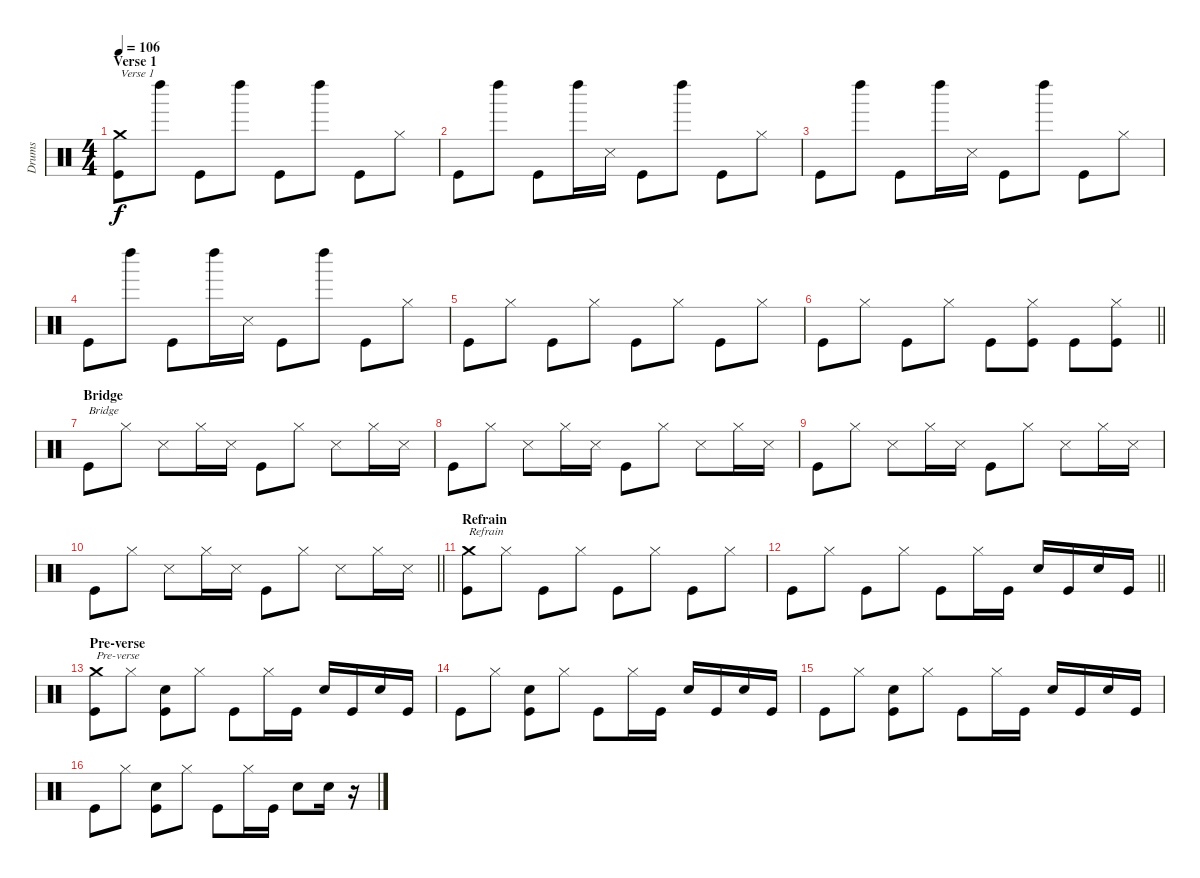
\track ("Drums" "Drums") {instrument percussion}
\staff {score}
\articulation defaults
\ts (4 4)
\section ("" "Verse 1")
\tempo 106
\clef neutral
\ks c
("Kick (hit)" "Crash medium (hit)").8{txt "Verse 1" dy f} "Left Maraca (hit)".8 "Kick (hit)".8 "Left Maraca (hit)".8 "Kick (hit)".8 "Left Maraca (hit)".8 "Kick (hit)".8 "Hi-Hat (closed)".8 |
"Kick (hit)".8 "Left Maraca (hit)".8 "Kick (hit)".8 "Left Maraca (hit)".16 "Snare (side stick) 3".16 "Kick (hit)".8 "Left Maraca (hit)".8 "Kick (hit)".8 "Hi-Hat (closed)".8 |
"Kick (hit)".8 "Left Maraca (hit)".8 "Kick (hit)".8 "Left Maraca (hit)".16 "Snare (side stick) 3".16 "Kick (hit)".8 "Left Maraca (hit)".8 "Kick (hit)".8 "Hi-Hat (closed)".8 |
"Kick (hit)".8 "Left Maraca (hit)".8 "Kick (hit)".8 "Left Maraca (hit)".16 "Snare (side stick) 3".16 "Kick (hit)".8 "Left Maraca (hit)".8 "Kick (hit)".8 "Hi-Hat (closed)".8 |
"Kick (hit)".8 "Hi-Hat (closed)".8 "Kick (hit)".8 "Hi-Hat (closed)".8 "Kick (hit)".8 "Hi-Hat (closed)".8 "Kick (hit)".8 "Hi-Hat (closed)".8 |
\barLineRight lightlight "Kick (hit)".8 "Hi-Hat (closed)".8 "Kick (hit)".8 "Hi-Hat (closed)".8 "Kick (hit)".8
("Kick (hit)" "Hi-Hat (closed)").8 "Kick (hit)".8 ("Kick (hit)" "Hi-Hat (closed)").8 |
\section ("" "Bridge")
"Kick (hit)".8{txt "Bridge"} "Hi-Hat (closed)".8 "Snare (side stick) 3".8 "Hi-Hat (closed)".16 "Snare (side stick) 3".16 "Kick (hit)".8 "Hi-Hat (closed)".8 "Snare (side stick) 3".8 "Hi-Hat (closed)".16 "Snare (side stick) 3".16 |
"Kick (hit)".8 "Hi-Hat (closed)".8 "Snare (side stick) 3".8 "Hi-Hat (closed)".16 "Snare (side stick) 3".16 "Kick (hit)".8 "Hi-Hat (closed)".8 "Snare (side stick) 3".8 "Hi-Hat (closed)".16 "Snare (side stick) 3".16 |
"Kick (hit)".8 "Hi-Hat (closed)".8 "Snare (side stick) 3".8 "Hi-Hat (closed)".16 "Snare (side stick) 3".16 "Kick (hit)".8 "Hi-Hat (closed)".8 "Snare (side stick) 3".8 "Hi-Hat (closed)".16 "Snare (side stick) 3".16 |
\barLineRight lightlight "Kick (hit)".8 "Hi-Hat (closed)".8 "Snare (side stick) 3".8 "Hi-Hat (closed)".16 "Snare (side stick) 3".16 "Kick (hit)".8 "Hi-Hat (closed)".8 "Snare (side stick) 3".8 "Hi-Hat (closed)".16 "Snare (side stick) 3".16
|
\section ("" "Refrain")
("Kick (hit)" "Crash medium (hit)").8{txt "Refrain"} "Hi-Hat (closed)".8 "Kick (hit)".8 "Hi-Hat (closed)".8 "Kick (hit)".8 "Hi-Hat (closed)".8 "Kick (hit)".8 "Hi-Hat (closed)".8 |
\barLineRight lightlight "Kick (hit)".8 "Hi-Hat (closed)".8 "Kick (hit)".8 "Hi-Hat (closed)".8 "Kick (hit)".8 "Hi-Hat (closed)".16 "Kick (hit)".16 "Electric Snare (hit)".16 "Kick (hit)".16 "Electric Snare (hit)".16 "Kick (hit)".16
|
\section ("" "Pre-verse")
("Kick (hit)" "Crash medium (hit)").8{txt "Pre-verse"} "Hi-Hat (closed)".8 ("Kick (hit)" "Electric Snare (hit)").8 "Hi-Hat (closed)".8 "Kick (hit)".8 "Hi-Hat (closed)".16 "Kick (hit)".16 "Electric Snare (hit)".16 "Kick (hit)".16 "Electric Snare (hit)".16 "Kick (hit)".16 |
"Kick (hit)".8 "Hi-Hat (closed)".8 ("Kick (hit)" "Electric Snare (hit)").8 "Hi-Hat (closed)".8 "Kick (hit)".8 "Hi-Hat (closed)".16 "Kick (hit)".16 "Electric Snare (hit)".16 "Kick (hit)".16 "Electric Snare (hit)".16 "Kick (hit)".16 |
"Kick (hit)".8 "Hi-Hat (closed)".8 ("Kick (hit)" "Electric Snare (hit)").8 "Hi-Hat (closed)".8 "Kick (hit)".8 "Hi-Hat (closed)".16 "Kick (hit)".16 "Electric Snare (hit)".16 "Kick (hit)".16 "Electric Snare (hit)".16 "Kick (hit)".16 |
"Kick (hit)".8 "Hi-Hat (closed)".8 ("Kick (hit)" "Electric Snare (hit)").8 "Hi-Hat (closed)".8 "Kick (hit)".8 "Hi-Hat (closed)".16 "Kick (hit)".16 "Electric Snare (hit)".8 "Electric Snare (hit)".16 r.16
